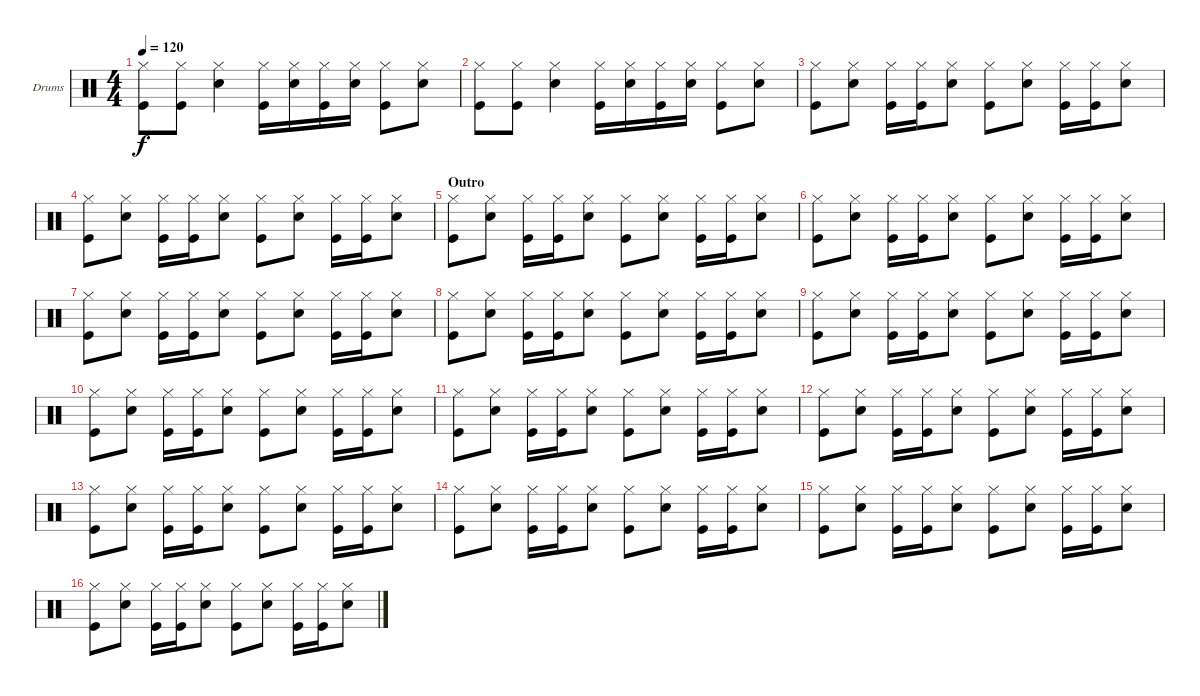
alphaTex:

\defaultSystemsLayout 4
\bracketExtendMode groupsimilarinstruments
\firstSystemTrackNameOrientation horizontal
\otherSystemsTrackNameOrientation horizontal
\track ("Drumkit" "Drums") {instrument percussion}
\staff {score}
\articulation defaults
\ts (4 4)
\tempo 120
\clef neutral
\ks c
("Hi-Hat (closed)" "Kick (hit)").8{dy f} ("Hi-Hat (closed)" "Kick (hit)").8 ("Hi-Hat (closed)" "Snare (hit) 2").4 ("Hi-Hat (closed)" "Kick (hit)").16 ("Hi-Hat (closed)" "Snare (hit) 2").16 ("Hi-Hat (closed)" "Kick (hit)").16 ("Hi-Hat (closed)" "Snare (hit) 2").16 ("Hi-Hat (closed)" "Kick (hit)").8 ("Hi-Hat (closed)" "Snare (hit) 2").8 |
("Hi-Hat (closed)" "Kick (hit)").8 ("Hi-Hat (closed)" "Kick (hit)").8 ("Hi-Hat (closed)" "Snare (hit) 2").4 ("Hi-Hat (closed)" "Kick (hit)").16 ("Hi-Hat (closed)" "Snare (hit) 2").16 ("Hi-Hat (closed)" "Kick (hit)").16 ("Hi-Hat (closed)" "Snare (hit) 2").16 ("Hi-Hat (closed)" "Kick (hit)").8 ("Hi-Hat (closed)" "Snare (hit) 2").8 |
("Hi-Hat (closed)" "Kick (hit)").8 ("Hi-Hat (closed)" "Snare (hit) 2").8 ("Hi-Hat (closed)" "Kick (hit)").16 ("Hi-Hat (closed)" "Kick (hit)").16 ("Hi-Hat (closed)" "Snare (hit) 2").8 ("Hi-Hat (closed)" "Kick (hit)").8 ("Hi-Hat (closed)" "Snare (hit) 2").8 ("Hi-Hat (closed)" "Kick (hit)").16 ("Hi-Hat (closed)" "Kick (hit)").16 ("Hi-Hat (closed)" "Snare (hit) 2").8 |
("Hi-Hat (closed)" "Kick (hit)").8 ("Hi-Hat (closed)" "Snare (hit) 2").8 ("Hi-Hat (closed)" "Kick (hit)").16 ("Hi-Hat (closed)" "Kick (hit)").16 ("Hi-Hat (closed)" "Snare (hit) 2").8 ("Hi-Hat (closed)" "Kick (hit)").8 ("Hi-Hat (closed)" "Snare (hit) 2").8 ("Hi-Hat (closed)" "Kick (hit)").16 ("Hi-Hat (closed)" "Kick (hit)").16 ("Hi-Hat (closed)" "Snare (hit) 2").8 |
\section ("" "Outro")
("Hi-Hat (closed)" "Kick (hit)").8 ("Hi-Hat (closed)" "Snare (hit) 2").8 ("Hi-Hat (closed)" "Kick (hit)").16 ("Hi-Hat (closed)" "Kick (hit)").16 ("Hi-Hat (closed)" "Snare (hit) 2").8 ("Hi-Hat (closed)" "Kick (hit)").8 ("Hi-Hat (closed)" "Snare (hit) 2").8 ("Hi-Hat (closed)" "Kick (hit)").16 ("Hi-Hat (closed)" "Kick (hit)").16 ("Hi-Hat (closed)" "Snare (hit) 2").8 |
("Hi-Hat (closed)" "Kick (hit)").8 ("Hi-Hat (closed)" "Snare (hit) 2").8 ("Hi-Hat (closed)" "Kick (hit)").16 ("Hi-Hat (closed)" "Kick (hit)").16 ("Hi-Hat (closed)" "Snare (hit) 2").8 ("Hi-Hat (closed)" "Kick (hit)").8 ("Hi-Hat (closed)" "Snare (hit) 2").8 ("Hi-Hat (closed)" "Kick (hit)").16 ("Hi-Hat (closed)" "Kick (hit)").16 ("Hi-Hat (closed)" "Snare (hit) 2").8 |
("Hi-Hat (closed)" "Kick (hit)").8 ("Hi-Hat (closed)" "Snare (hit) 2").8 ("Hi-Hat (closed)" "Kick (hit)").16 ("Hi-Hat (closed)" "Kick (hit)").16 ("Hi-Hat (closed)" "Snare (hit) 2").8 ("Hi-Hat (closed)" "Kick (hit)").8 ("Hi-Hat (closed)" "Snare (hit) 2").8 ("Hi-Hat (closed)" "Kick (hit)").16 ("Hi-Hat (closed)" "Kick (hit)").16 ("Hi-Hat (closed)" "Snare (hit) 2").8 |
("Hi-Hat (closed)" "Kick (hit)").8 ("Hi-Hat (closed)" "Snare (hit) 2").8 ("Hi-Hat (closed)" "Kick (hit)").16 ("Hi-Hat (closed)" "Kick (hit)").16 ("Hi-Hat (closed)" "Snare (hit) 2").8 ("Hi-Hat (closed)" "Kick (hit)").8 ("Hi-Hat (closed)" "Snare (hit) 2").8 ("Hi-Hat (closed)" "Kick (hit)").16 ("Hi-Hat (closed)" "Kick (hit)").16 ("Hi-Hat (closed)" "Snare (hit) 2").8 |
("Hi-Hat (closed)" "Kick (hit)").8 ("Hi-Hat (closed)" "Snare (hit) 2").8 ("Hi-Hat (closed)" "Kick (hit)").16 ("Hi-Hat (closed)" "Kick (hit)").16 ("Hi-Hat (closed)" "Snare (hit) 2").8 ("Hi-Hat (closed)" "Kick (hit)").8 ("Hi-Hat (closed)" "Snare (hit) 2").8 ("Hi-Hat (closed)" "Kick (hit)").16 ("Hi-Hat (closed)" "Kick (hit)").16 ("Hi-Hat (closed)" "Snare (hit) 2").8 |
("Hi-Hat (closed)" "Kick (hit)").8 ("Hi-Hat (closed)" "Snare (hit) 2").8 ("Hi-Hat (closed)" "Kick (hit)").16 ("Hi-Hat (closed)" "Kick (hit)").16 ("Hi-Hat (closed)" "Snare (hit) 2").8 ("Hi-Hat (closed)" "Kick (hit)").8 ("Hi-Hat (closed)" "Snare (hit) 2").8 ("Hi-Hat (closed)" "Kick (hit)").16 ("Hi-Hat (closed)" "Kick (hit)").16 ("Hi-Hat (closed)" "Snare (hit) 2").8 |
("Hi-Hat (closed)" "Kick (hit)").8 ("Hi-Hat (closed)" "Snare (hit) 2").8 ("Hi-Hat (closed)" "Kick (hit)").16 ("Hi-Hat (closed)" "Kick (hit)").16 ("Hi-Hat (closed)" "Snare (hit) 2").8 ("Hi-Hat (closed)" "Kick (hit)").8 ("Hi-Hat (closed)" "Snare (hit) 2").8 ("Hi-Hat (closed)" "Kick (hit)").16 ("Hi-Hat (closed)" "Kick (hit)").16 ("Hi-Hat (closed)" "Snare (hit) 2").8 |
("Hi-Hat (closed)" "Kick (hit)").8 ("Hi-Hat (closed)" "Snare (hit) 2").8 ("Hi-Hat (closed)" "Kick (hit)").16 ("Hi-Hat (closed)" "Kick (hit)").16 ("Hi-Hat (closed)" "Snare (hit) 2").8 ("Hi-Hat (closed)" "Kick (hit)").8 ("Hi-Hat (closed)" "Snare (hit) 2").8 ("Hi-Hat (closed)" "Kick (hit)").16 ("Hi-Hat (closed)" "Kick (hit)").16 ("Hi-Hat (closed)" "Snare (hit) 2").8 |
("Hi-Hat (closed)" "Kick (hit)").8 ("Hi-Hat (closed)" "Snare (hit) 2").8 ("Hi-Hat (closed)" "Kick (hit)").16 ("Hi-Hat (closed)" "Kick (hit)").16 ("Hi-Hat (closed)" "Snare (hit) 2").8 ("Hi-Hat (closed)" "Kick (hit)").8 ("Hi-Hat (closed)" "Snare (hit) 2").8 ("Hi-Hat (closed)" "Kick (hit)").16 ("Hi-Hat (closed)" "Kick (hit)").16 ("Hi-Hat (closed)" "Snare (hit) 2").8 |
("Hi-Hat (closed)" "Kick (hit)").8 ("Hi-Hat (closed)" "Snare (hit) 2").8 ("Hi-Hat (closed)" "Kick (hit)").16 ("Hi-Hat (closed)" "Kick (hit)").16 ("Hi-Hat (closed)" "Snare (hit) 2").8 ("Hi-Hat (closed)" "Kick (hit)").8 ("Hi-Hat (closed)" "Snare (hit) 2").8 ("Hi-Hat (closed)" "Kick (hit)").16 ("Hi-Hat (closed)" "Kick (hit)").16 ("Hi-Hat (closed)" "Snare (hit) 2").8 |
("Hi-Hat (closed)" "Kick (hit)").8 ("Hi-Hat (closed)" "Snare (hit) 2").8 ("Hi-Hat (closed)" "Kick (hit)").16 ("Hi-Hat (closed)" "Kick (hit)").16 ("Hi-Hat (closed)" "Snare (hit) 2").8 ("Hi-Hat (closed)" "Kick (hit)").8 ("Hi-Hat (closed)" "Snare (hit) 2").8 ("Hi-Hat (closed)" "Kick (hit)").16 ("Hi-Hat (closed)" "Kick (hit)").16 ("Hi-Hat (closed)" "Snare (hit) 2").8 |
("Hi-Hat (closed)" "Kick (hit)").8 ("Hi-Hat (closed)" "Snare (hit) 2").8 ("Hi-Hat (closed)" "Kick (hit)").16 ("Hi-Hat (closed)" "Kick (hit)").16 ("Hi-Hat (closed)" "Snare (hit) 2").8 ("Hi-Hat (closed)" "Kick (hit)").8 ("Hi-Hat (closed)" "Snare (hit) 2").8 ("Hi-Hat (closed)" "Kick (hit)").16 ("Hi-Hat (closed)" "Kick (hit)").16 ("Hi-Hat (closed)" "Snare (hit) 2").8
